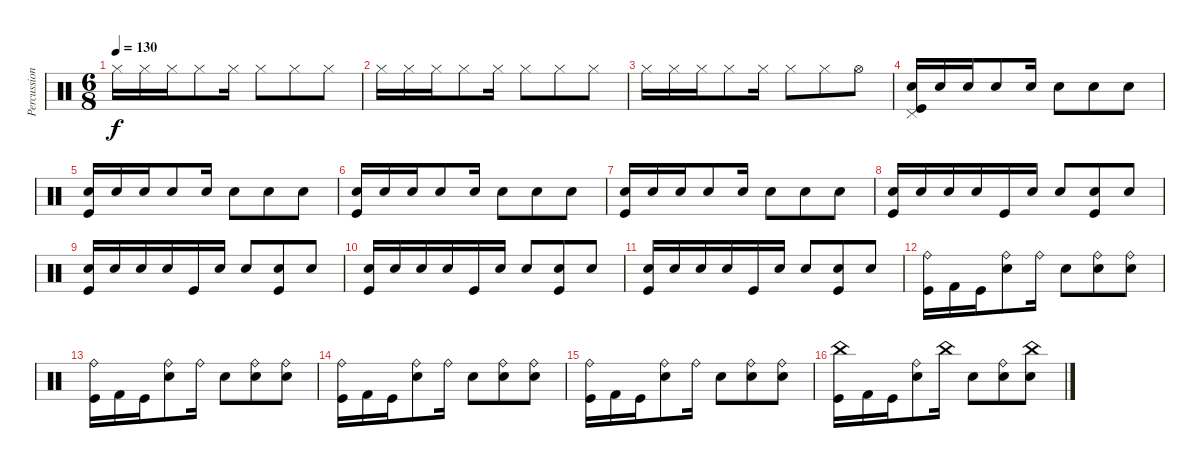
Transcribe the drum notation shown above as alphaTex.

\track ("Percussion" "Percussion") {instrument percussion}
\staff {score}
\articulation defaults
\ts (6 8)
\tempo 130
\clef neutral
\ks c "Hi-Hat (closed)".16{dy f} "Hi-Hat (closed)".16 "Hi-Hat (closed)".16 "Hi-Hat (closed)".8 "Hi-Hat (closed)".16 "Hi-Hat (closed)".8 "Hi-Hat (closed)".8 "Hi-Hat (closed)".8
|
"Hi-Hat (closed)".16 "Hi-Hat (closed)".16 "Hi-Hat (closed)".16 "Hi-Hat (closed)".8 "Hi-Hat (closed)".16 "Hi-Hat (closed)".8 "Hi-Hat (closed)".8 "Hi-Hat (closed)".8 |
"Hi-Hat (closed)".16 "Hi-Hat (closed)".16 "Hi-Hat (closed)".16 "Hi-Hat (closed)".8 "Hi-Hat (closed)".16 "Hi-Hat (closed)".8 "Hi-Hat (closed)".8 "Hi-Hat (open)".8 |
("Pedal Hi-Hat (hit)" "Kick (hit)" "Snare (hit) 2").16 "Snare (hit) 2".16 "Snare (hit) 2".16 "Snare (hit) 2".8 "Snare (hit) 2".16 "Snare (hit) 2".8 "Snare (hit) 2".8 "Snare (hit) 2".8 |
("Kick (hit)" "Snare (hit) 2").16 "Snare (hit) 2".16 "Snare (hit) 2".16 "Snare (hit) 2".8 "Snare (hit) 2".16 "Snare (hit) 2".8 "Snare (hit) 2".8 "Snare (hit) 2".8 |
("Kick (hit)" "Snare (hit) 2").16 "Snare (hit) 2".16 "Snare (hit) 2".16 "Snare (hit) 2".8 "Snare (hit) 2".16 "Snare (hit) 2".8 "Snare (hit) 2".8 "Snare (hit) 2".8 |
("Kick (hit)" "Snare (hit) 2").16 "Snare (hit) 2".16 "Snare (hit) 2".16 "Snare (hit) 2".8 "Snare (hit) 2".16 "Snare (hit) 2".8 "Snare (hit) 2".8 "Snare (hit) 2".8 |
("Kick (hit)" "Snare (hit) 2").16 "Snare (hit) 2".16 "Snare (hit) 2".16 "Snare (hit) 2".16 "Kick (hit)".16 "Snare (hit) 2".16 "Snare (hit) 2".8 ("Snare (hit) 2" "Kick (hit)").8 "Snare (hit) 2".8 |
("Kick (hit)" "Snare (hit) 2").16 "Snare (hit) 2".16 "Snare (hit) 2".16 "Snare (hit) 2".16 "Kick (hit)".16 "Snare (hit) 2".16 "Snare (hit) 2".8 ("Snare (hit) 2" "Kick (hit)").8 "Snare (hit) 2".8 |
("Kick (hit)" "Snare (hit) 2").16 "Snare (hit) 2".16 "Snare (hit) 2".16 "Snare (hit) 2".16 "Kick (hit)".16 "Snare (hit) 2".16 "Snare (hit) 2".8 ("Snare (hit) 2" "Kick (hit)").8 "Snare (hit) 2".8 |
("Kick (hit)" "Snare (hit) 2").16 "Snare (hit) 2".16 "Snare (hit) 2".16 "Snare (hit) 2".16 "Kick (hit)".16 "Snare (hit) 2".16 "Snare (hit) 2".8 ("Snare (hit) 2" "Kick (hit)").8 "Snare (hit) 2".8 |
("Ride (bell)" "Kick (hit)").16 "Kick (hit) 2".16 "Kick (hit)".16 ("Ride (bell)" "Snare (hit) 2").8 "Ride (bell)".16 "Snare (hit) 2".8 ("Ride (bell)" "Snare (hit) 2").8 ("Ride (bell)" "Snare (hit) 2").8 |
("Ride (bell)" "Kick (hit)").16 "Kick (hit) 2".16 "Kick (hit)".16 ("Ride (bell)" "Snare (hit) 2").8 "Ride (bell)".16 "Snare (hit) 2".8 ("Ride (bell)" "Snare (hit) 2").8 ("Ride (bell)" "Snare (hit) 2").8 |
("Ride (bell)" "Kick (hit)").16 "Kick (hit) 2".16 "Kick (hit)".16 ("Ride (bell)" "Snare (hit) 2").8 "Ride (bell)".16 "Snare (hit) 2".8 ("Ride (bell)" "Snare (hit) 2").8 ("Ride (bell)" "Snare (hit) 2").8 |
("Ride (bell)" "Kick (hit)").16 "Kick (hit) 2".16 "Kick (hit)".16 ("Ride (bell)" "Snare (hit) 2").8 "Ride (bell)".16 "Snare (hit) 2".8 ("Ride (bell)" "Snare (hit) 2").8 ("Ride (bell)" "Snare (hit) 2").8 |
("China (hit)" "Kick (hit)").16 "Kick (hit) 2".16 "Kick (hit)".16 ("Ride (bell)" "Snare (hit) 2").8 "China (hit)".16 "Snare (hit) 2".8 ("Ride (bell)" "Snare (hit) 2").8 ("China (hit)" "Snare (hit) 2").8
